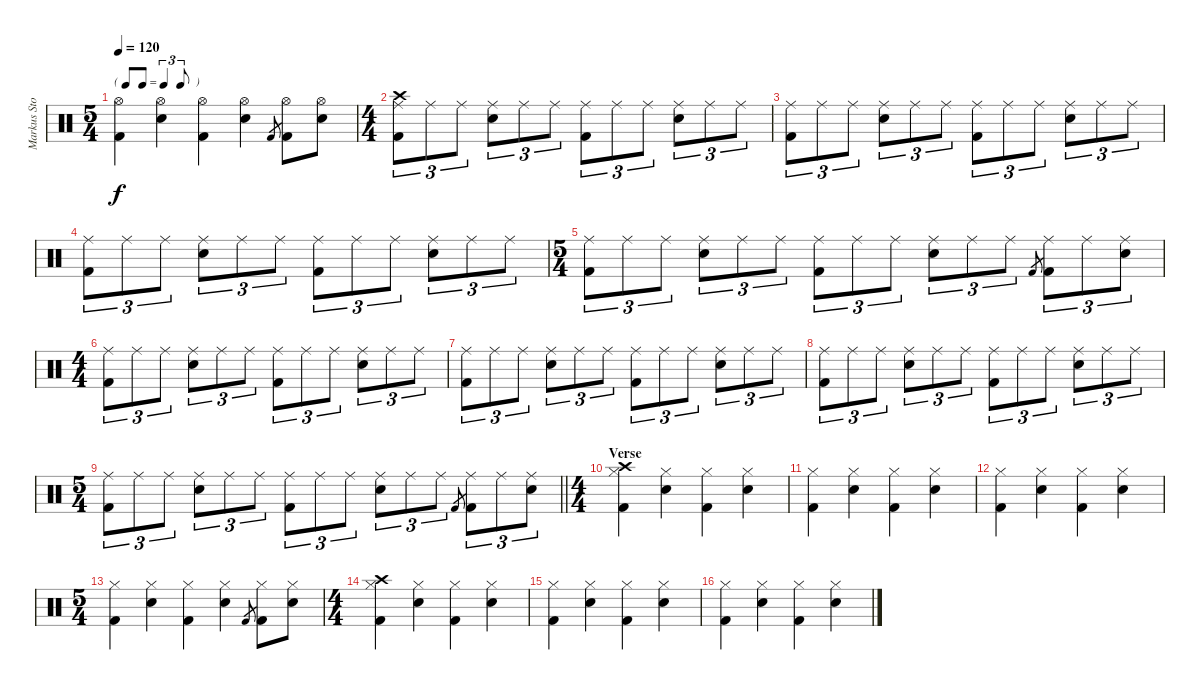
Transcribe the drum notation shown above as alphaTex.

\track ("Markus Stock" "Markus Sto") {instrument percussion}
\staff {score}
\articulation defaults
\ts (5 4)
\tf triplet8th
\tempo 120
\clef neutral
\ks c
("Hi-Hat (open)" "Kick (hit) 2").4{dy f} ("Hi-Hat (open)" "Snare (hit) 2").4 ("Hi-Hat (open)" "Kick (hit) 2").4 ("Hi-Hat (open)" "Snare (hit) 2").4 "Kick (hit) 2".8{gr} ("Hi-Hat (open)" "Kick (hit) 2").8 ("Hi-Hat (open)" "Snare (hit) 2").8 |
\ts (4 4)
("Crash high (hit)" "Ride (middle)" "Kick (hit) 2").8{tu (3 2)} "Ride (middle)".8{tu (3 2)} "Ride (middle)".8{tu (3 2)} ("Ride (middle)" "Snare (hit) 2").8{tu (3 2)} "Ride (middle)".8{tu (3 2)} "Ride (middle)".8{tu (3 2)} ("Ride (middle)" "Kick (hit) 2").8{tu (3 2)} "Ride (middle)".8{tu (3 2)} "Ride (middle)".8{tu (3 2)} ("Ride (middle)" "Snare (hit) 2").8{tu (3 2)} "Ride (middle)".8{tu (3 2)} "Ride (middle)".8{tu (3 2)} |
("Ride (middle)" "Kick (hit) 2").8{tu (3 2)} "Ride (middle)".8{tu (3 2)} "Ride (middle)".8{tu (3 2)} ("Ride (middle)" "Snare (hit) 2").8{tu (3 2)} "Ride (middle)".8{tu (3 2)} "Ride (middle)".8{tu (3 2)} ("Ride (middle)" "Kick (hit) 2").8{tu (3 2)} "Ride (middle)".8{tu (3 2)} "Ride (middle)".8{tu (3 2)} ("Ride (middle)" "Snare (hit) 2").8{tu (3 2)} "Ride (middle)".8{tu (3 2)} "Ride (middle)".8{tu (3 2)} |
("Ride (middle)" "Kick (hit) 2").8{tu (3 2)} "Ride (middle)".8{tu (3 2)} "Ride (middle)".8{tu (3 2)} ("Ride (middle)" "Snare (hit) 2").8{tu (3 2)} "Ride (middle)".8{tu (3 2)} "Ride (middle)".8{tu (3 2)} ("Ride (middle)" "Kick (hit) 2").8{tu (3 2)} "Ride (middle)".8{tu (3 2)} "Ride (middle)".8{tu (3 2)} ("Ride (middle)" "Snare (hit) 2").8{tu (3 2)} "Ride (middle)".8{tu (3 2)} "Ride (middle)".8{tu (3 2)} |
\ts (5 4)
("Ride (middle)" "Kick (hit) 2").8{tu (3 2)} "Ride (middle)".8{tu (3 2)} "Ride (middle)".8{tu (3 2)} ("Ride (middle)" "Snare (hit) 2").8{tu (3 2)} "Ride (middle)".8{tu (3 2)} "Ride (middle)".8{tu (3 2)} ("Ride (middle)" "Kick (hit) 2").8{tu (3 2)} "Ride (middle)".8{tu (3 2)} "Ride (middle)".8{tu (3 2)} ("Ride (middle)" "Snare (hit) 2").8{tu (3 2)} "Ride (middle)".8{tu (3 2)} "Ride (middle)".8{tu (3 2)} "Kick (hit) 2".8{gr} ("Ride (middle)" "Kick (hit) 2").8{tu (3 2)} "Ride (middle)".8{tu (3 2)} ("Ride (middle)" "Snare (hit) 2").8{tu (3 2)} |
\ts (4 4)
("Ride (middle)" "Kick (hit) 2").8{tu (3 2)} "Ride (middle)".8{tu (3 2)} "Ride (middle)".8{tu (3 2)} ("Ride (middle)" "Snare (hit) 2").8{tu (3 2)} "Ride (middle)".8{tu (3 2)} "Ride (middle)".8{tu (3 2)} ("Ride (middle)" "Kick (hit) 2").8{tu (3 2)} "Ride (middle)".8{tu (3 2)} "Ride (middle)".8{tu (3 2)} ("Ride (middle)" "Snare (hit) 2").8{tu (3 2)} "Ride (middle)".8{tu (3 2)} "Ride (middle)".8{tu (3 2)} |
("Ride (middle)" "Kick (hit) 2").8{tu (3 2)} "Ride (middle)".8{tu (3 2)} "Ride (middle)".8{tu (3 2)} ("Ride (middle)" "Snare (hit) 2").8{tu (3 2)} "Ride (middle)".8{tu (3 2)} "Ride (middle)".8{tu (3 2)} ("Ride (middle)" "Kick (hit) 2").8{tu (3 2)} "Ride (middle)".8{tu (3 2)} "Ride (middle)".8{tu (3 2)} ("Ride (middle)" "Snare (hit) 2").8{tu (3 2)} "Ride (middle)".8{tu (3 2)} "Ride (middle)".8{tu (3 2)} |
("Ride (middle)" "Kick (hit) 2").8{tu (3 2)} "Ride (middle)".8{tu (3 2)} "Ride (middle)".8{tu (3 2)} ("Ride (middle)" "Snare (hit) 2").8{tu (3 2)} "Ride (middle)".8{tu (3 2)} "Ride (middle)".8{tu (3 2)} ("Ride (middle)" "Kick (hit) 2").8{tu (3 2)} "Ride (middle)".8{tu (3 2)} "Ride (middle)".8{tu (3 2)} ("Ride (middle)" "Snare (hit) 2").8{tu (3 2)} "Ride (middle)".8{tu (3 2)} "Ride (middle)".8{tu (3 2)} |
\ts (5 4)
\barLineRight lightlight
("Ride (middle)" "Kick (hit) 2").8{tu (3 2)} "Ride (middle)".8{tu (3 2)} "Ride (middle)".8{tu (3 2)} ("Ride (middle)" "Snare (hit) 2").8{tu (3 2)} "Ride (middle)".8{tu (3 2)} "Ride (middle)".8{tu (3 2)} ("Ride (middle)" "Kick (hit) 2").8{tu (3 2)} "Ride (middle)".8{tu (3 2)} "Ride (middle)".8{tu (3 2)} ("Ride (middle)" "Snare (hit) 2").8{tu (3 2)} "Ride (middle)".8{tu (3 2)} "Ride (middle)".8{tu (3 2)} "Kick (hit) 2".8{gr} ("Ride (middle)" "Kick (hit) 2").8{tu (3 2)} "Ride (middle)".8{tu (3 2)} ("Ride (middle)" "Snare (hit) 2").8{tu (3 2)} |
\ts (4 4)
\section ("" "Verse")
("Crash high (hit)" "Hi-Hat (closed)" "Kick (hit) 2").4 ("Hi-Hat (closed)" "Snare (hit) 2").4 ("Hi-Hat (closed)" "Kick (hit) 2").4 ("Hi-Hat (closed)" "Snare (hit) 2").4 |
("Hi-Hat (closed)" "Kick (hit) 2").4 ("Hi-Hat (closed)" "Snare (hit) 2").4 ("Hi-Hat (closed)" "Kick (hit) 2").4 ("Hi-Hat (closed)" "Snare (hit) 2").4 |
("Hi-Hat (closed)" "Kick (hit) 2").4 ("Hi-Hat (closed)" "Snare (hit) 2").4 ("Hi-Hat (closed)" "Kick (hit) 2").4 ("Hi-Hat (closed)" "Snare (hit) 2").4 |
\ts (5 4)
("Hi-Hat (closed)" "Kick (hit) 2").4 ("Hi-Hat (closed)" "Snare (hit) 2").4 ("Hi-Hat (closed)" "Kick (hit) 2").4 ("Hi-Hat (closed)" "Snare (hit) 2").4 "Kick (hit) 2".8{gr} ("Hi-Hat (closed)" "Kick (hit) 2").8 ("Hi-Hat (closed)" "Snare (hit) 2").8 |
\ts (4 4)
("Crash high (hit)" "Hi-Hat (closed)" "Kick (hit) 2").4 ("Hi-Hat (closed)" "Snare (hit) 2").4 ("Hi-Hat (closed)" "Kick (hit) 2").4 ("Hi-Hat (closed)" "Snare (hit) 2").4 |
("Hi-Hat (closed)" "Kick (hit) 2").4 ("Hi-Hat (closed)" "Snare (hit) 2").4 ("Hi-Hat (closed)" "Kick (hit) 2").4 ("Hi-Hat (closed)" "Snare (hit) 2").4 |
("Hi-Hat (closed)" "Kick (hit) 2").4 ("Hi-Hat (closed)" "Snare (hit) 2").4 ("Hi-Hat (closed)" "Kick (hit) 2").4 ("Hi-Hat (closed)" "Snare (hit) 2").4
